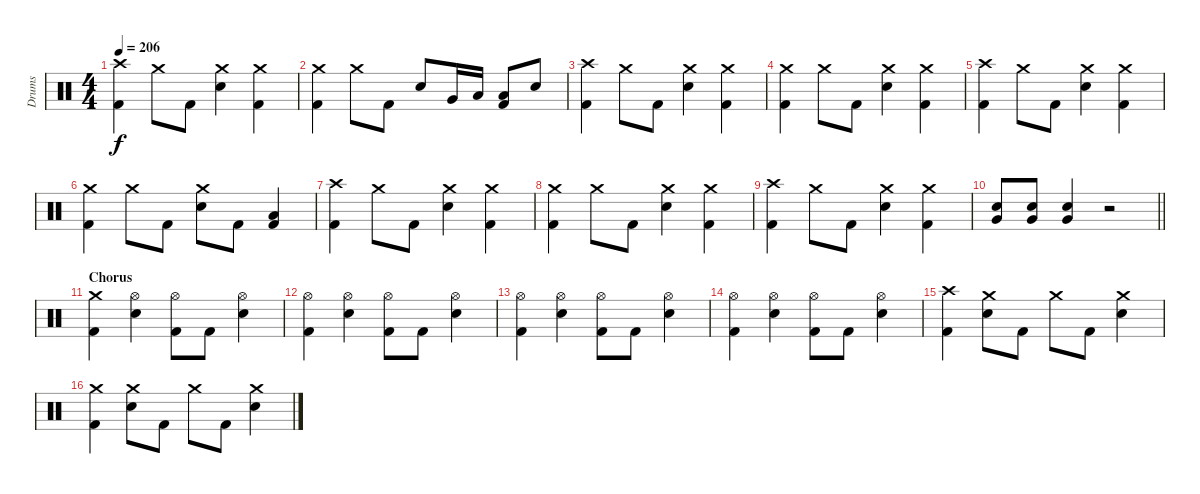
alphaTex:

\track ("Drums" "Drums") {instrument percussion}
\staff {score}
\articulation defaults
\ts (4 4)
\tempo 206
\clef neutral
\ks c
("Crash high (hit)" "Kick (hit) 2").4{dy f} "Crash medium (hit)".8 "Kick (hit) 2".8 ("Crash medium (hit)" "Electric Snare (hit)").4 ("Crash medium (hit)" "Kick (hit) 2").4 |
("Crash medium (hit)" "Kick (hit) 2").4 "Crash medium (hit)".8 "Kick (hit) 2".8 "Electric Snare (hit)".8 "Very Low Tom (hit)".16 "Low Floor Tom (hit)".16 ("Low Floor Tom (hit)" "Kick (hit) 2").8 "Electric Snare (hit)".8 |
("Crash high (hit)" "Kick (hit) 2").4 "Crash medium (hit)".8 "Kick (hit) 2".8 ("Crash medium (hit)" "Electric Snare (hit)").4 ("Crash medium (hit)" "Kick (hit) 2").4 |
("Crash medium (hit)" "Kick (hit) 2").4 "Crash medium (hit)".8 "Kick (hit) 2".8 ("Crash medium (hit)" "Electric Snare (hit)").4 ("Crash medium (hit)" "Kick (hit) 2").4 |
("Crash high (hit)" "Kick (hit) 2").4 "Crash medium (hit)".8 "Kick (hit) 2".8 ("Crash medium (hit)" "Electric Snare (hit)").4 ("Crash medium (hit)" "Kick (hit) 2").4 |
("Crash medium (hit)" "Kick (hit) 2").4 "Crash medium (hit)".8 "Kick (hit) 2".8 ("Crash medium (hit)" "Electric Snare (hit)").8 "Kick (hit) 2".8 ("Low Floor Tom (hit)" "Kick (hit) 2").4 |
("Crash high (hit)" "Kick (hit) 2").4 "Crash medium (hit)".8 "Kick (hit) 2".8 ("Crash medium (hit)" "Electric Snare (hit)").4 ("Crash medium (hit)" "Kick (hit) 2").4 |
("Crash medium (hit)" "Kick (hit) 2").4 "Crash medium (hit)".8 "Kick (hit) 2".8 ("Crash medium (hit)" "Electric Snare (hit)").4 ("Crash medium (hit)" "Kick (hit) 2").4 |
("Crash high (hit)" "Kick (hit) 2").4 "Crash medium (hit)".8 "Kick (hit) 2".8 ("Crash medium (hit)" "Electric Snare (hit)").4 ("Crash medium (hit)" "Kick (hit) 2").4 |
\barLineRight lightlight
("Very Low Tom (hit)" "Electric Snare (hit)").8 ("Very Low Tom (hit)" "Electric Snare (hit)").8 ("Very Low Tom (hit)" "Electric Snare (hit)").4 r.2 |
\section ("" "Chorus")
("Crash medium (hit)" "Kick (hit) 2").4 ("Hi-Hat (open)" "Electric Snare (hit)").4 ("Hi-Hat (open)" "Kick (hit) 2").8 "Kick (hit) 2".8 ("Hi-Hat (open)" "Electric Snare (hit)").4 |
("Hi-Hat (open)" "Kick (hit) 2").4 ("Hi-Hat (open)" "Electric Snare (hit)").4 ("Hi-Hat (open)" "Kick (hit) 2").8 "Kick (hit) 2".8 ("Hi-Hat (open)" "Electric Snare (hit)").4 |
("Hi-Hat (open)" "Kick (hit) 2").4 ("Hi-Hat (open)" "Electric Snare (hit)").4 ("Hi-Hat (open)" "Kick (hit) 2").8 "Kick (hit) 2".8 ("Hi-Hat (open)" "Electric Snare (hit)").4 |
("Hi-Hat (open)" "Kick (hit) 2").4 ("Hi-Hat (open)" "Electric Snare (hit)").4 ("Hi-Hat (open)" "Kick (hit) 2").8 "Kick (hit) 2".8 ("Hi-Hat (open)" "Electric Snare (hit)").4 |
("Crash high (hit)" "Kick (hit) 2").4 ("Crash medium (hit)" "Electric Snare (hit)").8 "Kick (hit) 2".8 "Crash medium (hit)".8 "Kick (hit) 2".8 ("Crash medium (hit)" "Electric Snare (hit)").4 |
("Crash medium (hit)" "Kick (hit) 2").4 ("Crash medium (hit)" "Electric Snare (hit)").8 "Kick (hit) 2".8 "Crash medium (hit)".8 "Kick (hit) 2".8 ("Crash medium (hit)" "Electric Snare (hit)").4
